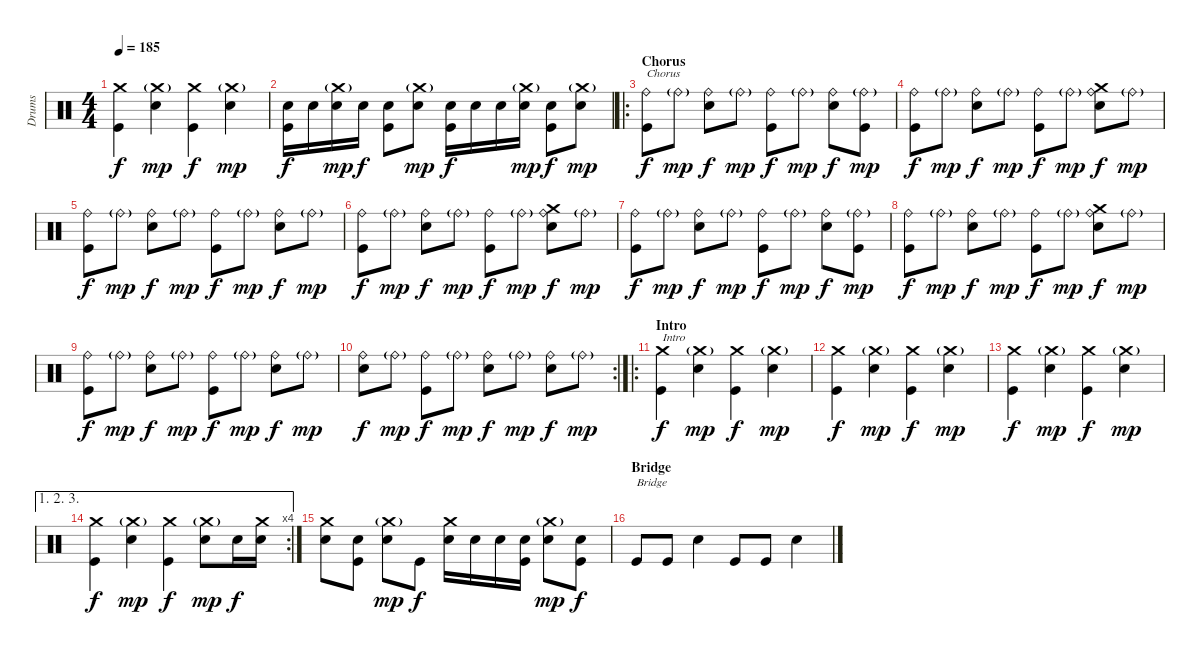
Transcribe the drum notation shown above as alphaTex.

\track ("Drums" "Drums") {instrument percussion}
\staff {score}
\articulation defaults
\ts (4 4)
\tempo 185
\clef neutral
\ks c
("Crash medium (hit)" "Kick (hit)").4{dy f} ("Crash medium (hit)"{g} "Snare (hit) 2").4{dy mp} ("Crash medium (hit)" "Kick (hit)").4{dy f} ("Crash medium (hit)"{g} "Snare (hit) 2").4{dy mp} |
("Snare (hit) 2" "Kick (hit)").16{dy f} "Snare (hit) 2".16 ("Crash medium (hit)"{g} "Snare (hit) 2").16{dy mp} "Snare (hit) 2".16{dy f} ("Snare (hit) 2" "Kick (hit)").8 ("Crash medium (hit)"{g} "Snare (hit) 2").8{dy mp} ("Snare (hit) 2" "Kick (hit)").16{dy f} "Snare (hit) 2".16 "Snare (hit) 2".16 ("Crash medium (hit)"{g} "Snare (hit) 2").16{dy mp} ("Snare (hit) 2" "Kick (hit)").8{dy f} ("Crash medium (hit)"{g} "Snare (hit) 2").8{dy mp} |
\ro
\section ("" "Chorus")
("Ride (bell)" "Kick (hit)").8{txt "Chorus" dy f} "Ride (bell)"{g}.8{dy mp} ("Ride (bell)" "Snare (hit) 2").8{dy f} "Ride (bell)"{g}.8{dy mp} ("Ride (bell)" "Kick (hit)").8{dy f} "Ride (bell)"{g}.8{dy mp} ("Ride (bell)" "Snare (hit) 2").8{dy f} ("Ride (bell)"{g} "Kick (hit)").8{dy mp} |
("Ride (bell)" "Kick (hit)").8{dy f} "Ride (bell)"{g}.8{dy mp} ("Ride (bell)" "Snare (hit) 2").8{dy f} "Ride (bell)"{g}.8{dy mp} ("Ride (bell)" "Kick (hit)").8{dy f} "Ride (bell)"{g}.8{dy mp} ("Crash medium (hit)" "Ride (bell)" "Snare (hit) 2").8{dy f} "Ride (bell)"{g}.8{dy mp} |
("Ride (bell)" "Kick (hit)").8{dy f} "Ride (bell)"{g}.8{dy mp} ("Ride (bell)" "Snare (hit) 2").8{dy f} "Ride (bell)"{g}.8{dy mp} ("Ride (bell)" "Kick (hit)").8{dy f} "Ride (bell)"{g}.8{dy mp} ("Ride (bell)" "Snare (hit) 2").8{dy f} "Ride (bell)"{g}.8{dy mp} |
("Ride (bell)" "Kick (hit)").8{dy f} "Ride (bell)"{g}.8{dy mp} ("Ride (bell)" "Snare (hit) 2").8{dy f} "Ride (bell)"{g}.8{dy mp} ("Ride (bell)" "Kick (hit)").8{dy f} "Ride (bell)"{g}.8{dy mp} ("Crash medium (hit)" "Ride (bell)" "Snare (hit) 2").8{dy f} "Ride (bell)"{g}.8{dy mp} |
("Ride (bell)" "Kick (hit)").8{dy f} "Ride (bell)"{g}.8{dy mp} ("Ride (bell)" "Snare (hit) 2").8{dy f} "Ride (bell)"{g}.8{dy mp} ("Ride (bell)" "Kick (hit)").8{dy f} "Ride (bell)"{g}.8{dy mp} ("Ride (bell)" "Snare (hit) 2").8{dy f} ("Ride (bell)"{g} "Kick (hit)").8{dy mp} |
("Ride (bell)" "Kick (hit)").8{dy f} "Ride (bell)"{g}.8{dy mp} ("Ride (bell)" "Snare (hit) 2").8{dy f} "Ride (bell)"{g}.8{dy mp} ("Ride (bell)" "Kick (hit)").8{dy f} "Ride (bell)"{g}.8{dy mp} ("Crash medium (hit)" "Ride (bell)" "Snare (hit) 2").8{dy f} "Ride (bell)"{g}.8{dy mp} |
("Ride (bell)" "Kick (hit)").8{dy f} "Ride (bell)"{g}.8{dy mp} ("Ride (bell)" "Snare (hit) 2").8{dy f} "Ride (bell)"{g}.8{dy mp} ("Ride (bell)" "Kick (hit)").8{dy f} "Ride (bell)"{g}.8{dy mp} ("Ride (bell)" "Snare (hit) 2").8{dy f} "Ride (bell)"{g}.8{dy mp} |
\rc 2
("Ride (bell)" "Snare (hit) 2").8{dy f} "Ride (bell)"{g}.8{dy mp} ("Ride (bell)" "Kick (hit)").8{dy f} "Ride (bell)"{g}.8{dy mp} ("Ride (bell)" "Snare (hit) 2").8{dy f} "Ride (bell)"{g}.8{dy mp} ("Ride (bell)" "Snare (hit) 2").8{dy f} "Ride (bell)"{g}.8{dy mp} |
\ro
\section ("" "Intro")
("Crash medium (hit)" "Kick (hit)").4{txt "Intro" dy f} ("Crash medium (hit)"{g} "Snare (hit) 2").4{dy mp} ("Crash medium (hit)" "Kick (hit)").4{dy f} ("Crash medium (hit)"{g} "Snare (hit) 2").4{dy mp} |
("Crash medium (hit)" "Kick (hit)").4{dy f} ("Crash medium (hit)"{g} "Snare (hit) 2").4{dy mp} ("Crash medium (hit)" "Kick (hit)").4{dy f} ("Crash medium (hit)"{g} "Snare (hit) 2").4{dy mp} |
("Crash medium (hit)" "Kick (hit)").4{dy f} ("Crash medium (hit)"{g} "Snare (hit) 2").4{dy mp} ("Crash medium (hit)" "Kick (hit)").4{dy f} ("Crash medium (hit)"{g} "Snare (hit) 2").4{dy mp} |
\ae (1 2 3)
\rc 4
("Crash medium (hit)" "Kick (hit)").4{dy f} ("Crash medium (hit)"{g} "Snare (hit) 2").4{dy mp} ("Crash medium (hit)" "Kick (hit)").4{dy f} ("Crash medium (hit)"{g} "Snare (hit) 2").8{dy mp} "Snare (hit) 2".16{dy f} ("Crash medium (hit)" "Snare (hit) 2").16 |
("Crash medium (hit)" "Snare (hit) 2").8 ("Snare (hit) 2" "Kick (hit)").8 ("Crash medium (hit)"{g} "Snare (hit) 2").8{dy mp} "Kick (hit)".8{dy f} ("Crash medium (hit)" "Snare (hit) 2").16 "Snare (hit) 2".16 "Snare (hit) 2".16 ("Snare (hit) 2" "Kick (hit)").16 ("Crash medium (hit)"{g} "Snare (hit) 2").8{dy mp} ("Snare (hit) 2" "Kick (hit)").8{dy f} |
\section ("" "Bridge")
"Kick (hit)".8{txt "Bridge"} "Kick (hit)".8 "Snare (hit) 2".4 "Kick (hit)".8 "Kick (hit)".8 "Snare (hit) 2".4
